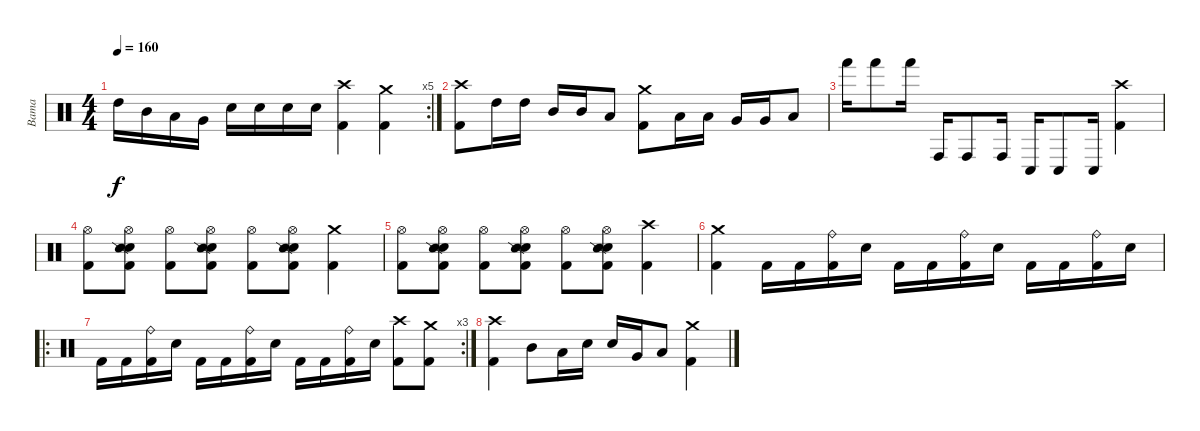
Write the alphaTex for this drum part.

\track ("Bama" "Bama") {instrument percussion}
\staff {score}
\articulation defaults
\rc 5
\ts (4 4)
\tempo 160
\clef neutral
\ks c "High Tom (hit)".16{dy f} "Mid Tom (hit)".16 "Low Tom (hit)".16 "Very Low Tom (hit)".16 "Electric Snare (hit)".16 "Electric Snare (hit)".16 "Electric Snare (hit)".16 "Electric Snare (hit)".16
("Crash high (hit)" "Kick (hit) 2").4 ("Crash medium (hit)" "Kick (hit) 2").4 |
("Crash high (hit)" "Kick (hit) 2").8 "High Tom (hit)".16 "High Tom (hit)".16 "Mid Tom (hit)".16 "Mid Tom (hit)".16 "Low Tom (hit)".8 ("Crash medium (hit)" "Kick (hit) 2").8 "Low Tom (hit)".16 "Low Tom (hit)".16 "Very Low Tom (hit)".16 "Very Low Tom (hit)".16 "Low Floor Tom (hit)".8 |
"Hand (hit)".16 "Hand (hit)".8 "Hand (hit)".16 "Conga high (hit)".16 "Conga high (hit)".8 "Conga high (hit)".16 "Conga low (hit)".16 "Conga low (hit)".8 "Conga low (hit)".16 ("Crash high (hit)" "Kick (hit) 2").4 |
("Hi-Hat (open)" "Kick (hit) 2").8 ("Hi-Hat (open)" "Electric Snare (hit)" "Snare (side stick) 2" "Kick (hit) 2").8 ("Hi-Hat (open)" "Kick (hit) 2").8 ("Hi-Hat (open)" "Electric Snare (hit)" "Snare (side stick) 2" "Kick (hit) 2").8 ("Hi-Hat (open)" "Kick (hit) 2").8 ("Hi-Hat (open)" "Electric Snare (hit)" "Snare (side stick) 2" "Kick (hit) 2").8 ("Crash medium (hit)" "Kick (hit) 2").4 |
("Hi-Hat (open)" "Kick (hit) 2").8 ("Hi-Hat (open)" "Electric Snare (hit)" "Snare (side stick) 2" "Kick (hit) 2").8 ("Hi-Hat (open)" "Kick (hit) 2").8 ("Hi-Hat (open)" "Electric Snare (hit)" "Snare (side stick) 2" "Kick (hit) 2").8 ("Hi-Hat (open)" "Kick (hit) 2").8 ("Hi-Hat (open)" "Electric Snare (hit)" "Snare (side stick) 2" "Kick (hit) 2").8 ("Crash high (hit)" "Kick (hit) 2").4 |
("Crash medium (hit)" "Kick (hit) 2").4 "Kick (hit) 2".16 "Kick (hit) 2".16 ("Ride (bell)" "Kick (hit) 2").16 "Electric Snare (hit)".16 "Kick (hit) 2".16 "Kick (hit) 2".16 ("Ride (bell)" "Kick (hit) 2").16 "Electric Snare (hit)".16 "Kick (hit) 2".16 "Kick (hit) 2".16 ("Ride (bell)" "Kick (hit) 2").16 "Electric Snare (hit)".16 |
\ro
\rc 3 "Kick (hit) 2".16 "Kick (hit) 2".16
("Ride (bell)" "Kick (hit) 2").16 "Electric Snare (hit)".16 "Kick (hit) 2".16 "Kick (hit) 2".16 ("Ride (bell)" "Kick (hit) 2").16 "Electric Snare (hit)".16 "Kick (hit) 2".16 "Kick (hit) 2".16 ("Ride (bell)" "Kick (hit) 2").16 "Electric Snare (hit)".16 ("Crash high (hit)" "Kick (hit) 2").8 ("Crash medium (hit)" "Kick (hit) 2").8 |
("Crash high (hit)" "Kick (hit) 2").4 "Mid Tom (hit)".8 "Low Tom (hit)".16 "Electric Snare (hit)".16 "Electric Snare (hit)".16 "Very Low Tom (hit)".16 "Low Floor Tom (hit)".8 ("Crash medium (hit)" "Kick (hit) 2").4
